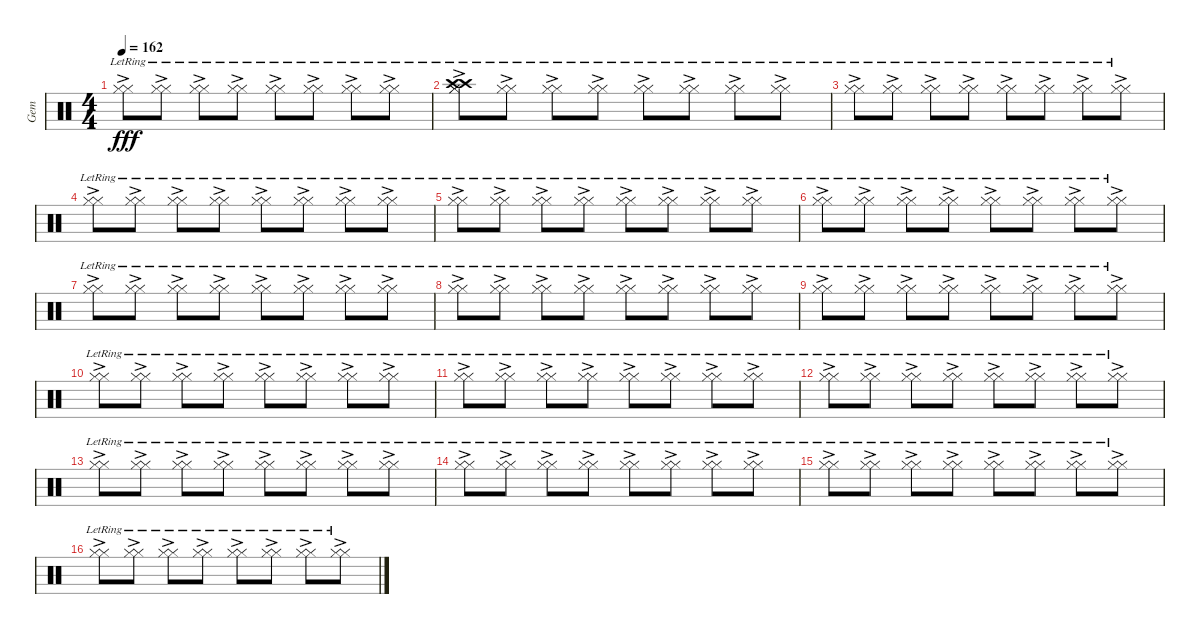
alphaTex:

\track ("Gem" "Gem") {instrument percussion}
\staff {score}
\articulation defaults
\ts (4 4)
\tempo 162
\clef neutral
\ks c
("Hi-Hat (closed)"{ac lr} "Hi-Hat (closed)"{lr}).8{dy fff} ("Hi-Hat (closed)"{ac lr} "Hi-Hat (closed)"{lr}).8 ("Hi-Hat (closed)"{ac lr} "Hi-Hat (closed)"{lr}).8 ("Hi-Hat (closed)"{ac lr} "Hi-Hat (closed)"{lr}).8 ("Hi-Hat (closed)"{ac lr} "Hi-Hat (closed)"{lr}).8 ("Hi-Hat (closed)"{ac lr} "Hi-Hat (closed)"{lr}).8 ("Hi-Hat (closed)"{ac lr} "Hi-Hat (closed)"{lr}).8 ("Hi-Hat (closed)"{ac lr} "Hi-Hat (closed)"{lr}).8 |
("Hi-Hat (closed)"{ac lr} "Hi-Hat (closed)"{lr} "Crash high (hit)"{ac lr} "Crash high (hit)"{ac lr}).8 ("Hi-Hat (closed)"{ac lr} "Hi-Hat (closed)"{lr}).8 ("Hi-Hat (closed)"{ac lr} "Hi-Hat (closed)"{lr}).8 ("Hi-Hat (closed)"{ac lr} "Hi-Hat (closed)"{lr}).8 ("Hi-Hat (closed)"{ac lr} "Hi-Hat (closed)"{lr}).8 ("Hi-Hat (closed)"{ac lr} "Hi-Hat (closed)"{lr}).8 ("Hi-Hat (closed)"{ac lr} "Hi-Hat (closed)"{lr}).8 ("Hi-Hat (closed)"{ac lr} "Hi-Hat (closed)"{lr}).8 |
("Hi-Hat (closed)"{ac lr} "Hi-Hat (closed)"{lr}).8 ("Hi-Hat (closed)"{ac lr} "Hi-Hat (closed)"{lr}).8 ("Hi-Hat (closed)"{ac lr} "Hi-Hat (closed)"{lr}).8 ("Hi-Hat (closed)"{ac lr} "Hi-Hat (closed)"{lr}).8 ("Hi-Hat (closed)"{ac lr} "Hi-Hat (closed)"{lr}).8 ("Hi-Hat (closed)"{ac lr} "Hi-Hat (closed)"{lr}).8 ("Hi-Hat (closed)"{ac lr} "Hi-Hat (closed)"{lr}).8 ("Hi-Hat (closed)"{ac lr} "Hi-Hat (closed)"{lr}).8 |
("Hi-Hat (closed)"{ac lr} "Hi-Hat (closed)"{lr}).8 ("Hi-Hat (closed)"{ac lr} "Hi-Hat (closed)"{lr}).8 ("Hi-Hat (closed)"{ac lr} "Hi-Hat (closed)"{lr}).8 ("Hi-Hat (closed)"{ac lr} "Hi-Hat (closed)"{lr}).8 ("Hi-Hat (closed)"{ac lr} "Hi-Hat (closed)"{lr}).8 ("Hi-Hat (closed)"{ac lr} "Hi-Hat (closed)"{lr}).8 ("Hi-Hat (closed)"{ac lr} "Hi-Hat (closed)"{lr}).8 ("Hi-Hat (closed)"{ac lr} "Hi-Hat (closed)"{lr}).8 |
("Hi-Hat (closed)"{ac lr} "Hi-Hat (closed)"{lr}).8 ("Hi-Hat (closed)"{ac lr} "Hi-Hat (closed)"{lr}).8 ("Hi-Hat (closed)"{ac lr} "Hi-Hat (closed)"{lr}).8 ("Hi-Hat (closed)"{ac lr} "Hi-Hat (closed)"{lr}).8 ("Hi-Hat (closed)"{ac lr} "Hi-Hat (closed)"{lr}).8 ("Hi-Hat (closed)"{ac lr} "Hi-Hat (closed)"{lr}).8 ("Hi-Hat (closed)"{ac lr} "Hi-Hat (closed)"{lr}).8 ("Hi-Hat (closed)"{ac lr} "Hi-Hat (closed)"{lr}).8 |
("Hi-Hat (closed)"{ac lr} "Hi-Hat (closed)"{lr}).8 ("Hi-Hat (closed)"{ac lr} "Hi-Hat (closed)"{lr}).8 ("Hi-Hat (closed)"{ac lr} "Hi-Hat (closed)"{lr}).8 ("Hi-Hat (closed)"{ac lr} "Hi-Hat (closed)"{lr}).8 ("Hi-Hat (closed)"{ac lr} "Hi-Hat (closed)"{lr}).8 ("Hi-Hat (closed)"{ac lr} "Hi-Hat (closed)"{lr}).8 ("Hi-Hat (closed)"{ac lr} "Hi-Hat (closed)"{lr}).8 ("Hi-Hat (closed)"{ac lr} "Hi-Hat (closed)"{lr}).8 |
("Hi-Hat (closed)"{ac lr} "Hi-Hat (closed)"{lr}).8 ("Hi-Hat (closed)"{ac lr} "Hi-Hat (closed)"{lr}).8 ("Hi-Hat (closed)"{ac lr} "Hi-Hat (closed)"{lr}).8 ("Hi-Hat (closed)"{ac lr} "Hi-Hat (closed)"{lr}).8 ("Hi-Hat (closed)"{ac lr} "Hi-Hat (closed)"{lr}).8 ("Hi-Hat (closed)"{ac lr} "Hi-Hat (closed)"{lr}).8 ("Hi-Hat (closed)"{ac lr} "Hi-Hat (closed)"{lr}).8 ("Hi-Hat (closed)"{ac lr} "Hi-Hat (closed)"{lr}).8 |
("Hi-Hat (closed)"{ac lr} "Hi-Hat (closed)"{lr}).8 ("Hi-Hat (closed)"{ac lr} "Hi-Hat (closed)"{lr}).8 ("Hi-Hat (closed)"{ac lr} "Hi-Hat (closed)"{lr}).8 ("Hi-Hat (closed)"{ac lr} "Hi-Hat (closed)"{lr}).8 ("Hi-Hat (closed)"{ac lr} "Hi-Hat (closed)"{lr}).8 ("Hi-Hat (closed)"{ac lr} "Hi-Hat (closed)"{lr}).8 ("Hi-Hat (closed)"{ac lr} "Hi-Hat (closed)"{lr}).8 ("Hi-Hat (closed)"{ac lr} "Hi-Hat (closed)"{lr}).8 |
("Hi-Hat (closed)"{ac lr} "Hi-Hat (closed)"{lr}).8 ("Hi-Hat (closed)"{ac lr} "Hi-Hat (closed)"{lr}).8 ("Hi-Hat (closed)"{ac lr} "Hi-Hat (closed)"{lr}).8 ("Hi-Hat (closed)"{ac lr} "Hi-Hat (closed)"{lr}).8 ("Hi-Hat (closed)"{ac lr} "Hi-Hat (closed)"{lr}).8 ("Hi-Hat (closed)"{ac lr} "Hi-Hat (closed)"{lr}).8 ("Hi-Hat (closed)"{ac lr} "Hi-Hat (closed)"{lr}).8 ("Hi-Hat (closed)"{ac lr} "Hi-Hat (closed)"{lr}).8 |
("Hi-Hat (closed)"{ac lr} "Hi-Hat (closed)"{lr}).8 ("Hi-Hat (closed)"{ac lr} "Hi-Hat (closed)"{lr}).8 ("Hi-Hat (closed)"{ac lr} "Hi-Hat (closed)"{lr}).8 ("Hi-Hat (closed)"{ac lr} "Hi-Hat (closed)"{lr}).8 ("Hi-Hat (closed)"{ac lr} "Hi-Hat (closed)"{lr}).8 ("Hi-Hat (closed)"{ac lr} "Hi-Hat (closed)"{lr}).8 ("Hi-Hat (closed)"{ac lr} "Hi-Hat (closed)"{lr}).8 ("Hi-Hat (closed)"{ac lr} "Hi-Hat (closed)"{lr}).8 |
("Hi-Hat (closed)"{ac lr} "Hi-Hat (closed)"{lr}).8 ("Hi-Hat (closed)"{ac lr} "Hi-Hat (closed)"{lr}).8 ("Hi-Hat (closed)"{ac lr} "Hi-Hat (closed)"{lr}).8 ("Hi-Hat (closed)"{ac lr} "Hi-Hat (closed)"{lr}).8 ("Hi-Hat (closed)"{ac lr} "Hi-Hat (closed)"{lr}).8 ("Hi-Hat (closed)"{ac lr} "Hi-Hat (closed)"{lr}).8 ("Hi-Hat (closed)"{ac lr} "Hi-Hat (closed)"{lr}).8 ("Hi-Hat (closed)"{ac lr} "Hi-Hat (closed)"{lr}).8 |
("Hi-Hat (closed)"{ac lr} "Hi-Hat (closed)"{lr}).8 ("Hi-Hat (closed)"{ac lr} "Hi-Hat (closed)"{lr}).8 ("Hi-Hat (closed)"{ac lr} "Hi-Hat (closed)"{lr}).8 ("Hi-Hat (closed)"{ac lr} "Hi-Hat (closed)"{lr}).8 ("Hi-Hat (closed)"{ac lr} "Hi-Hat (closed)"{lr}).8 ("Hi-Hat (closed)"{ac lr} "Hi-Hat (closed)"{lr}).8 ("Hi-Hat (closed)"{ac lr} "Hi-Hat (closed)"{lr}).8 ("Hi-Hat (closed)"{ac lr} "Hi-Hat (closed)"{lr}).8 |
("Hi-Hat (closed)"{ac lr} "Hi-Hat (closed)"{lr}).8 ("Hi-Hat (closed)"{ac lr} "Hi-Hat (closed)"{lr}).8 ("Hi-Hat (closed)"{ac lr} "Hi-Hat (closed)"{lr}).8 ("Hi-Hat (closed)"{ac lr} "Hi-Hat (closed)"{lr}).8 ("Hi-Hat (closed)"{ac lr} "Hi-Hat (closed)"{lr}).8 ("Hi-Hat (closed)"{ac lr} "Hi-Hat (closed)"{lr}).8 ("Hi-Hat (closed)"{ac lr} "Hi-Hat (closed)"{lr}).8 ("Hi-Hat (closed)"{ac lr} "Hi-Hat (closed)"{lr}).8 |
("Hi-Hat (closed)"{ac lr} "Hi-Hat (closed)"{lr}).8 ("Hi-Hat (closed)"{ac lr} "Hi-Hat (closed)"{lr}).8 ("Hi-Hat (closed)"{ac lr} "Hi-Hat (closed)"{lr}).8 ("Hi-Hat (closed)"{ac lr} "Hi-Hat (closed)"{lr}).8 ("Hi-Hat (closed)"{ac lr} "Hi-Hat (closed)"{lr}).8 ("Hi-Hat (closed)"{ac lr} "Hi-Hat (closed)"{lr}).8 ("Hi-Hat (closed)"{ac lr} "Hi-Hat (closed)"{lr}).8 ("Hi-Hat (closed)"{ac lr} "Hi-Hat (closed)"{lr}).8 |
("Hi-Hat (closed)"{ac lr} "Hi-Hat (closed)"{lr}).8 ("Hi-Hat (closed)"{ac lr} "Hi-Hat (closed)"{lr}).8 ("Hi-Hat (closed)"{ac lr} "Hi-Hat (closed)"{lr}).8 ("Hi-Hat (closed)"{ac lr} "Hi-Hat (closed)"{lr}).8 ("Hi-Hat (closed)"{ac lr} "Hi-Hat (closed)"{lr}).8 ("Hi-Hat (closed)"{ac lr} "Hi-Hat (closed)"{lr}).8 ("Hi-Hat (closed)"{ac lr} "Hi-Hat (closed)"{lr}).8 ("Hi-Hat (closed)"{ac lr} "Hi-Hat (closed)"{lr}).8 |
("Hi-Hat (closed)"{ac lr} "Hi-Hat (closed)"{lr}).8 ("Hi-Hat (closed)"{ac lr} "Hi-Hat (closed)"{lr}).8 ("Hi-Hat (closed)"{ac lr} "Hi-Hat (closed)"{lr}).8 ("Hi-Hat (closed)"{ac lr} "Hi-Hat (closed)"{lr}).8 ("Hi-Hat (closed)"{ac lr} "Hi-Hat (closed)"{lr}).8 ("Hi-Hat (closed)"{ac lr} "Hi-Hat (closed)"{lr}).8 ("Hi-Hat (closed)"{ac lr} "Hi-Hat (closed)"{lr}).8 ("Hi-Hat (closed)"{ac lr} "Hi-Hat (closed)"{lr}).8
